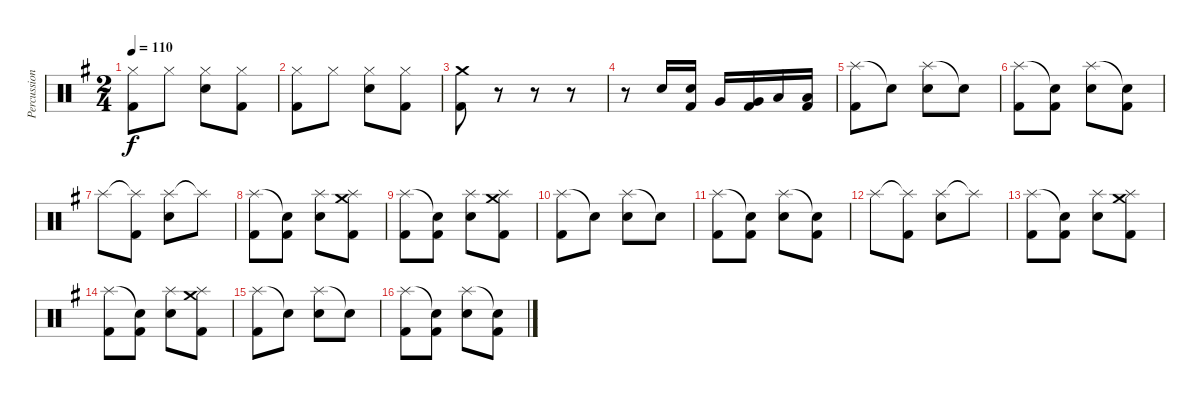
\track ("Percussion" "Percussion") {instrument percussion}
\staff {score}
\articulation defaults
\ts (2 4)
\tempo 110
\clef neutral
\ks g
("Hi-Hat (closed)" "Kick (hit) 2").8{dy f} "Hi-Hat (closed)".8 ("Hi-Hat (closed)" "Electric Snare (hit)").8 ("Hi-Hat (closed)" "Kick (hit) 2").8 |
("Hi-Hat (closed)" "Kick (hit) 2").8 "Hi-Hat (closed)".8 ("Hi-Hat (closed)" "Electric Snare (hit)").8 ("Hi-Hat (closed)" "Kick (hit) 2").8 |
("Crash medium (hit)" "Kick (hit) 2").8 r.8 r.8 r.8 |
r.8 "Electric Snare (hit)".16 ("Electric Snare (hit)" "Kick (hit) 2").16 "Very Low Tom (hit)".16 ("Very Low Tom (hit)" "Kick (hit) 2").16 "Low Floor Tom (hit)".16 ("Low Floor Tom (hit)" "Kick (hit) 2").16 |
("Splash (hit)" "Kick (hit) 2").8 "Snare (hit)"{t}.8 ("Splash (hit)" "Electric Snare (hit)").8 "Snare (hit)"{t}.8 |
("Splash (hit)" "Kick (hit) 2").8 ("Snare (hit)"{t} "Kick (hit) 2").8 ("Splash (hit)" "Electric Snare (hit)").8 ("Snare (hit)"{t} "Kick (hit) 2").8 |
"Splash (hit)".8 ("Splash (hit)"{t} "Kick (hit) 2").8 ("Splash (hit)" "Electric Snare (hit)").8 "Splash (hit)"{t}.8 |
("Splash (hit)" "Kick (hit) 2").8 ("Snare (hit)"{t} "Kick (hit) 2").8 ("Splash (hit)" "Electric Snare (hit)").8 ("Crash medium (hit)" "Splash (hit)" "Kick (hit) 2").8 |
("Splash (hit)" "Kick (hit) 2").8 ("Snare (hit)"{t} "Kick (hit) 2").8 ("Splash (hit)" "Electric Snare (hit)").8 ("Crash medium (hit)" "Splash (hit)" "Kick (hit) 2").8 |
("Splash (hit)" "Kick (hit) 2").8 "Snare (hit)"{t}.8 ("Splash (hit)" "Electric Snare (hit)").8 "Snare (hit)"{t}.8 |
("Splash (hit)" "Kick (hit) 2").8 ("Snare (hit)"{t} "Kick (hit) 2").8 ("Splash (hit)" "Electric Snare (hit)").8 ("Snare (hit)"{t} "Kick (hit) 2").8 |
"Splash (hit)".8 ("Splash (hit)"{t} "Kick (hit) 2").8 ("Splash (hit)" "Electric Snare (hit)").8 "Splash (hit)"{t}.8 |
("Splash (hit)" "Kick (hit) 2").8 ("Snare (hit)"{t} "Kick (hit) 2").8 ("Splash (hit)" "Electric Snare (hit)").8 ("Crash medium (hit)" "Splash (hit)" "Kick (hit) 2").8 |
("Splash (hit)" "Kick (hit) 2").8 ("Snare (hit)"{t} "Kick (hit) 2").8 ("Splash (hit)" "Electric Snare (hit)").8 ("Crash medium (hit)" "Splash (hit)" "Kick (hit) 2").8 |
("Splash (hit)" "Kick (hit) 2").8 "Snare (hit)"{t}.8 ("Splash (hit)" "Electric Snare (hit)").8 "Snare (hit)"{t}.8 |
("Splash (hit)" "Kick (hit) 2").8 ("Snare (hit)"{t} "Kick (hit) 2").8 ("Splash (hit)" "Electric Snare (hit)").8 ("Snare (hit)"{t} "Kick (hit) 2").8
